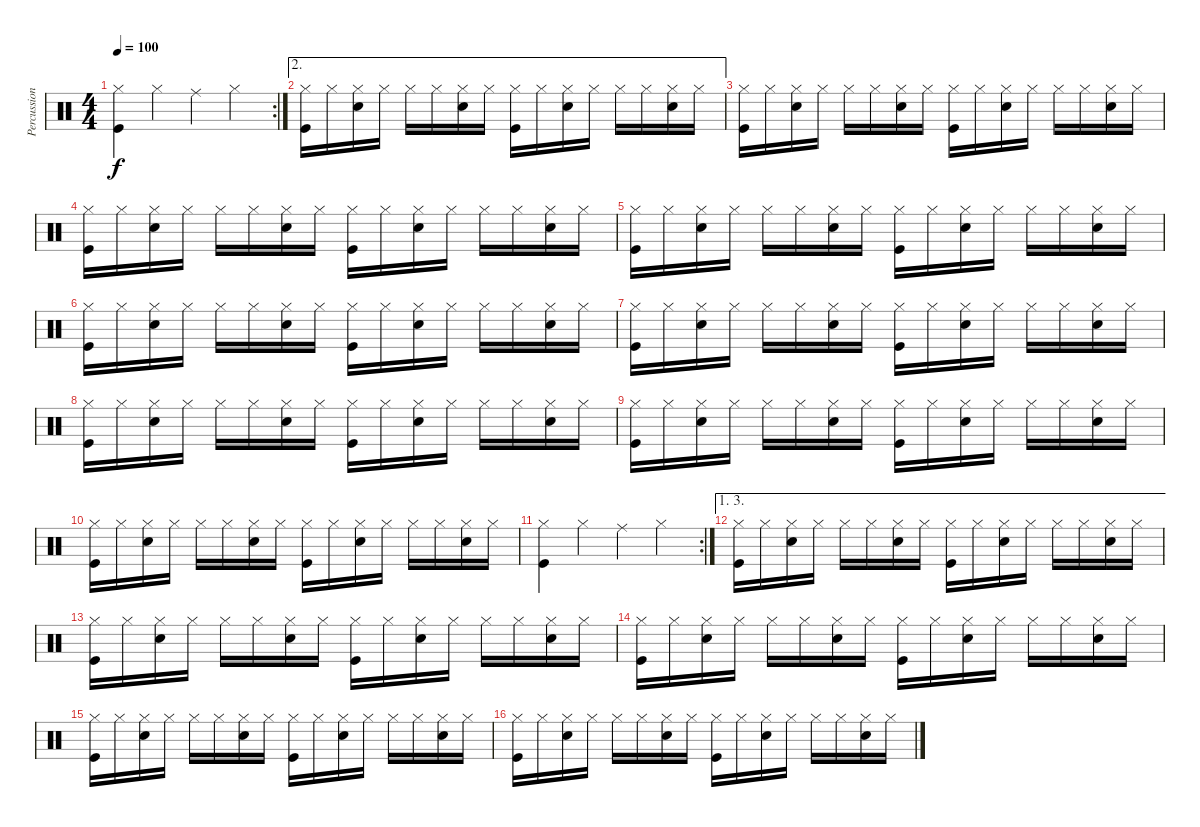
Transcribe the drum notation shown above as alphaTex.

\track ("Percussions" "Percussion") {instrument percussion}
\staff {score}
\articulation defaults
\rc 2
\ts (4 4)
\tempo 100
\clef neutral
\ks c
("Hi-Hat (closed)" "Kick (hit)").4{dy f} "Hi-Hat (closed)".4 "Ride (middle)".4 "Hi-Hat (closed)".4 |
\ae 2
("Hi-Hat (closed)" "Kick (hit)").16 "Hi-Hat (closed)".16 ("Hi-Hat (closed)" "Snare (hit) 2").16 "Hi-Hat (closed)".16 "Hi-Hat (closed)".16 "Hi-Hat (closed)".16 ("Hi-Hat (closed)" "Snare (hit) 2").16 "Hi-Hat (closed)".16 ("Hi-Hat (closed)" "Kick (hit)").16 "Hi-Hat (closed)".16 ("Hi-Hat (closed)" "Snare (hit) 2").16 "Hi-Hat (closed)".16 "Hi-Hat (closed)".16 "Hi-Hat (closed)".16 ("Hi-Hat (closed)" "Snare (hit) 2").16 "Hi-Hat (closed)".16 |
("Hi-Hat (closed)" "Kick (hit)").16 "Hi-Hat (closed)".16 ("Hi-Hat (closed)" "Snare (hit) 2").16 "Hi-Hat (closed)".16 "Hi-Hat (closed)".16 "Hi-Hat (closed)".16 ("Hi-Hat (closed)" "Snare (hit) 2").16 "Hi-Hat (closed)".16 ("Hi-Hat (closed)" "Kick (hit)").16 "Hi-Hat (closed)".16 ("Hi-Hat (closed)" "Snare (hit) 2").16 "Hi-Hat (closed)".16 "Hi-Hat (closed)".16 "Hi-Hat (closed)".16 ("Hi-Hat (closed)" "Snare (hit) 2").16 "Hi-Hat (closed)".16 |
("Hi-Hat (closed)" "Kick (hit)").16 "Hi-Hat (closed)".16 ("Hi-Hat (closed)" "Snare (hit) 2").16 "Hi-Hat (closed)".16 "Hi-Hat (closed)".16 "Hi-Hat (closed)".16 ("Hi-Hat (closed)" "Snare (hit) 2").16 "Hi-Hat (closed)".16 ("Hi-Hat (closed)" "Kick (hit)").16 "Hi-Hat (closed)".16 ("Hi-Hat (closed)" "Snare (hit) 2").16 "Hi-Hat (closed)".16 "Hi-Hat (closed)".16 "Hi-Hat (closed)".16 ("Hi-Hat (closed)" "Snare (hit) 2").16 "Hi-Hat (closed)".16 |
("Hi-Hat (closed)" "Kick (hit)").16 "Hi-Hat (closed)".16 ("Hi-Hat (closed)" "Snare (hit) 2").16 "Hi-Hat (closed)".16 "Hi-Hat (closed)".16 "Hi-Hat (closed)".16 ("Hi-Hat (closed)" "Snare (hit) 2").16 "Hi-Hat (closed)".16 ("Hi-Hat (closed)" "Kick (hit)").16 "Hi-Hat (closed)".16 ("Hi-Hat (closed)" "Snare (hit) 2").16 "Hi-Hat (closed)".16 "Hi-Hat (closed)".16 "Hi-Hat (closed)".16 ("Hi-Hat (closed)" "Snare (hit) 2").16 "Hi-Hat (closed)".16 |
("Hi-Hat (closed)" "Kick (hit)").16 "Hi-Hat (closed)".16 ("Hi-Hat (closed)" "Snare (hit) 2").16 "Hi-Hat (closed)".16 "Hi-Hat (closed)".16 "Hi-Hat (closed)".16 ("Hi-Hat (closed)" "Snare (hit) 2").16 "Hi-Hat (closed)".16 ("Hi-Hat (closed)" "Kick (hit)").16 "Hi-Hat (closed)".16 ("Hi-Hat (closed)" "Snare (hit) 2").16 "Hi-Hat (closed)".16 "Hi-Hat (closed)".16 "Hi-Hat (closed)".16 ("Hi-Hat (closed)" "Snare (hit) 2").16 "Hi-Hat (closed)".16 |
("Hi-Hat (closed)" "Kick (hit)").16 "Hi-Hat (closed)".16 ("Hi-Hat (closed)" "Snare (hit) 2").16 "Hi-Hat (closed)".16 "Hi-Hat (closed)".16 "Hi-Hat (closed)".16 ("Hi-Hat (closed)" "Snare (hit) 2").16 "Hi-Hat (closed)".16 ("Hi-Hat (closed)" "Kick (hit)").16 "Hi-Hat (closed)".16 ("Hi-Hat (closed)" "Snare (hit) 2").16 "Hi-Hat (closed)".16 "Hi-Hat (closed)".16 "Hi-Hat (closed)".16 ("Hi-Hat (closed)" "Snare (hit) 2").16 "Hi-Hat (closed)".16 |
("Hi-Hat (closed)" "Kick (hit)").16 "Hi-Hat (closed)".16 ("Hi-Hat (closed)" "Snare (hit) 2").16 "Hi-Hat (closed)".16 "Hi-Hat (closed)".16 "Hi-Hat (closed)".16 ("Hi-Hat (closed)" "Snare (hit) 2").16 "Hi-Hat (closed)".16 ("Hi-Hat (closed)" "Kick (hit)").16 "Hi-Hat (closed)".16 ("Hi-Hat (closed)" "Snare (hit) 2").16 "Hi-Hat (closed)".16 "Hi-Hat (closed)".16 "Hi-Hat (closed)".16 ("Hi-Hat (closed)" "Snare (hit) 2").16 "Hi-Hat (closed)".16 |
("Hi-Hat (closed)" "Kick (hit)").16 "Hi-Hat (closed)".16 ("Hi-Hat (closed)" "Snare (hit) 2").16 "Hi-Hat (closed)".16 "Hi-Hat (closed)".16 "Hi-Hat (closed)".16 ("Hi-Hat (closed)" "Snare (hit) 2").16 "Hi-Hat (closed)".16 ("Hi-Hat (closed)" "Kick (hit)").16 "Hi-Hat (closed)".16 ("Hi-Hat (closed)" "Snare (hit) 2").16 "Hi-Hat (closed)".16 "Hi-Hat (closed)".16 "Hi-Hat (closed)".16 ("Hi-Hat (closed)" "Snare (hit) 2").16 "Hi-Hat (closed)".16 |
("Hi-Hat (closed)" "Kick (hit)").16 "Hi-Hat (closed)".16 ("Hi-Hat (closed)" "Snare (hit) 2").16 "Hi-Hat (closed)".16 "Hi-Hat (closed)".16 "Hi-Hat (closed)".16 ("Hi-Hat (closed)" "Snare (hit) 2").16 "Hi-Hat (closed)".16 ("Hi-Hat (closed)" "Kick (hit)").16 "Hi-Hat (closed)".16 ("Hi-Hat (closed)" "Snare (hit) 2").16 "Hi-Hat (closed)".16 "Hi-Hat (closed)".16 "Hi-Hat (closed)".16 ("Hi-Hat (closed)" "Snare (hit) 2").16 "Hi-Hat (closed)".16 |
\rc 2
("Hi-Hat (closed)" "Kick (hit)").4 "Hi-Hat (closed)".4 "Ride (middle)".4 "Hi-Hat (closed)".4 |
\ae (1 3)
("Hi-Hat (closed)" "Kick (hit)").16 "Hi-Hat (closed)".16 ("Hi-Hat (closed)" "Snare (hit) 2").16 "Hi-Hat (closed)".16 "Hi-Hat (closed)".16 "Hi-Hat (closed)".16 ("Hi-Hat (closed)" "Snare (hit) 2").16 "Hi-Hat (closed)".16 ("Hi-Hat (closed)" "Kick (hit)").16 "Hi-Hat (closed)".16 ("Hi-Hat (closed)" "Snare (hit) 2").16 "Hi-Hat (closed)".16 "Hi-Hat (closed)".16 "Hi-Hat (closed)".16 ("Hi-Hat (closed)" "Snare (hit) 2").16 "Hi-Hat (closed)".16 |
("Hi-Hat (closed)" "Kick (hit)").16 "Hi-Hat (closed)".16 ("Hi-Hat (closed)" "Snare (hit) 2").16 "Hi-Hat (closed)".16 "Hi-Hat (closed)".16 "Hi-Hat (closed)".16 ("Hi-Hat (closed)" "Snare (hit) 2").16 "Hi-Hat (closed)".16 ("Hi-Hat (closed)" "Kick (hit)").16 "Hi-Hat (closed)".16 ("Hi-Hat (closed)" "Snare (hit) 2").16 "Hi-Hat (closed)".16 "Hi-Hat (closed)".16 "Hi-Hat (closed)".16 ("Hi-Hat (closed)" "Snare (hit) 2").16 "Hi-Hat (closed)".16 |
("Hi-Hat (closed)" "Kick (hit)").16 "Hi-Hat (closed)".16 ("Hi-Hat (closed)" "Snare (hit) 2").16 "Hi-Hat (closed)".16 "Hi-Hat (closed)".16 "Hi-Hat (closed)".16 ("Hi-Hat (closed)" "Snare (hit) 2").16 "Hi-Hat (closed)".16 ("Hi-Hat (closed)" "Kick (hit)").16 "Hi-Hat (closed)".16 ("Hi-Hat (closed)" "Snare (hit) 2").16 "Hi-Hat (closed)".16 "Hi-Hat (closed)".16 "Hi-Hat (closed)".16 ("Hi-Hat (closed)" "Snare (hit) 2").16 "Hi-Hat (closed)".16 |
("Hi-Hat (closed)" "Kick (hit)").16 "Hi-Hat (closed)".16 ("Hi-Hat (closed)" "Snare (hit) 2").16 "Hi-Hat (closed)".16 "Hi-Hat (closed)".16 "Hi-Hat (closed)".16 ("Hi-Hat (closed)" "Snare (hit) 2").16 "Hi-Hat (closed)".16 ("Hi-Hat (closed)" "Kick (hit)").16 "Hi-Hat (closed)".16 ("Hi-Hat (closed)" "Snare (hit) 2").16 "Hi-Hat (closed)".16 "Hi-Hat (closed)".16 "Hi-Hat (closed)".16 ("Hi-Hat (closed)" "Snare (hit) 2").16 "Hi-Hat (closed)".16 |
("Hi-Hat (closed)" "Kick (hit)").16 "Hi-Hat (closed)".16 ("Hi-Hat (closed)" "Snare (hit) 2").16 "Hi-Hat (closed)".16 "Hi-Hat (closed)".16 "Hi-Hat (closed)".16 ("Hi-Hat (closed)" "Snare (hit) 2").16 "Hi-Hat (closed)".16 ("Hi-Hat (closed)" "Kick (hit)").16 "Hi-Hat (closed)".16 ("Hi-Hat (closed)" "Snare (hit) 2").16 "Hi-Hat (closed)".16 "Hi-Hat (closed)".16 "Hi-Hat (closed)".16 ("Hi-Hat (closed)" "Snare (hit) 2").16 "Hi-Hat (closed)".16
